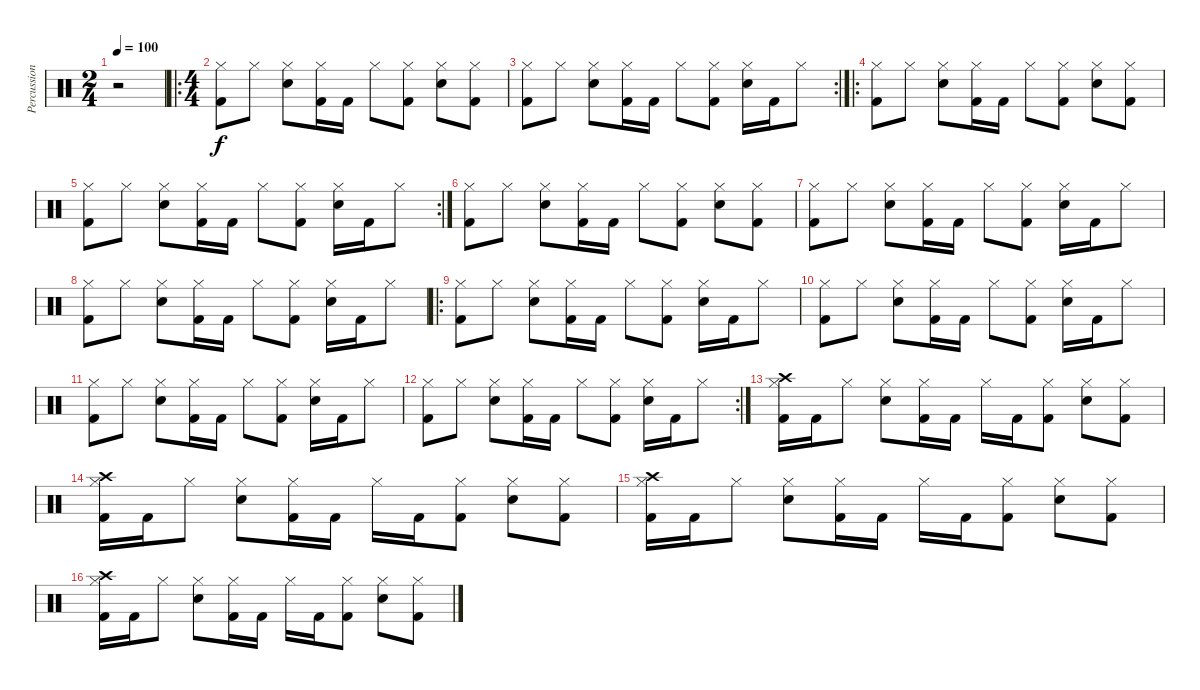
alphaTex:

\track ("Percussion" "Percussion") {instrument percussion}
\staff {score}
\articulation defaults
\ts (2 4)
\tempo 100
\clef neutral
\ks c
r.2{dy f} |
\ro
\ts (4 4)
("Hi-Hat (closed)" "Kick (hit) 2").8 "Hi-Hat (closed)".8 ("Hi-Hat (closed)" "Electric Snare (hit)").8 ("Hi-Hat (closed)" "Kick (hit) 2").16 "Kick (hit) 2".16 "Hi-Hat (closed)".8 ("Hi-Hat (closed)" "Kick (hit) 2").8 ("Hi-Hat (closed)" "Electric Snare (hit)").8 ("Hi-Hat (closed)" "Kick (hit) 2").8 |
\rc 2
("Hi-Hat (closed)" "Kick (hit) 2").8 "Hi-Hat (closed)".8 ("Hi-Hat (closed)" "Electric Snare (hit)").8 ("Hi-Hat (closed)" "Kick (hit) 2").16 "Kick (hit) 2".16 "Hi-Hat (closed)".8 ("Hi-Hat (closed)" "Kick (hit) 2").8 ("Hi-Hat (closed)" "Electric Snare (hit)").16 "Kick (hit) 2".16 "Hi-Hat (closed)".8 |
\ro
("Hi-Hat (closed)" "Kick (hit) 2").8 "Hi-Hat (closed)".8 ("Hi-Hat (closed)" "Electric Snare (hit)").8 ("Hi-Hat (closed)" "Kick (hit) 2").16 "Kick (hit) 2".16 "Hi-Hat (closed)".8 ("Hi-Hat (closed)" "Kick (hit) 2").8 ("Hi-Hat (closed)" "Electric Snare (hit)").8 ("Hi-Hat (closed)" "Kick (hit) 2").8 |
\rc 2
("Hi-Hat (closed)" "Kick (hit) 2").8 "Hi-Hat (closed)".8 ("Hi-Hat (closed)" "Electric Snare (hit)").8 ("Hi-Hat (closed)" "Kick (hit) 2").16 "Kick (hit) 2".16 "Hi-Hat (closed)".8 ("Hi-Hat (closed)" "Kick (hit) 2").8 ("Hi-Hat (closed)" "Electric Snare (hit)").16 "Kick (hit) 2".16 "Hi-Hat (closed)".8 |
("Hi-Hat (closed)" "Kick (hit) 2").8 "Hi-Hat (closed)".8 ("Hi-Hat (closed)" "Electric Snare (hit)").8 ("Hi-Hat (closed)" "Kick (hit) 2").16 "Kick (hit) 2".16 "Hi-Hat (closed)".8 ("Hi-Hat (closed)" "Kick (hit) 2").8 ("Hi-Hat (closed)" "Electric Snare (hit)").8 ("Hi-Hat (closed)" "Kick (hit) 2").8 |
("Hi-Hat (closed)" "Kick (hit) 2").8 "Hi-Hat (closed)".8 ("Hi-Hat (closed)" "Electric Snare (hit)").8 ("Hi-Hat (closed)" "Kick (hit) 2").16 "Kick (hit) 2".16 "Hi-Hat (closed)".8 ("Hi-Hat (closed)" "Kick (hit) 2").8 ("Hi-Hat (closed)" "Electric Snare (hit)").16 "Kick (hit) 2".16 "Hi-Hat (closed)".8 |
("Hi-Hat (closed)" "Kick (hit) 2").8 "Hi-Hat (closed)".8 ("Hi-Hat (closed)" "Electric Snare (hit)").8 ("Hi-Hat (closed)" "Kick (hit) 2").16 "Kick (hit) 2".16 "Hi-Hat (closed)".8 ("Hi-Hat (closed)" "Kick (hit) 2").8 ("Hi-Hat (closed)" "Electric Snare (hit)").16 "Kick (hit) 2".16 "Hi-Hat (closed)".8 |
\ro
("Hi-Hat (closed)" "Kick (hit) 2").8 "Hi-Hat (closed)".8 ("Hi-Hat (closed)" "Electric Snare (hit)").8 ("Hi-Hat (closed)" "Kick (hit) 2").16 "Kick (hit) 2".16 "Hi-Hat (closed)".8 ("Hi-Hat (closed)" "Kick (hit) 2").8 ("Hi-Hat (closed)" "Electric Snare (hit)").16 "Kick (hit) 2".16 "Hi-Hat (closed)".8 |
("Hi-Hat (closed)" "Kick (hit) 2").8 "Hi-Hat (closed)".8 ("Hi-Hat (closed)" "Electric Snare (hit)").8 ("Hi-Hat (closed)" "Kick (hit) 2").16 "Kick (hit) 2".16 "Hi-Hat (closed)".8 ("Hi-Hat (closed)" "Kick (hit) 2").8 ("Hi-Hat (closed)" "Electric Snare (hit)").16 "Kick (hit) 2".16 "Hi-Hat (closed)".8 |
("Hi-Hat (closed)" "Kick (hit) 2").8 "Hi-Hat (closed)".8 ("Hi-Hat (closed)" "Electric Snare (hit)").8 ("Hi-Hat (closed)" "Kick (hit) 2").16 "Kick (hit) 2".16 "Hi-Hat (closed)".8 ("Hi-Hat (closed)" "Kick (hit) 2").8 ("Hi-Hat (closed)" "Electric Snare (hit)").16 "Kick (hit) 2".16 "Hi-Hat (closed)".8 |
\rc 2
("Hi-Hat (closed)" "Kick (hit) 2").8 "Hi-Hat (closed)".8 ("Hi-Hat (closed)" "Electric Snare (hit)").8 ("Hi-Hat (closed)" "Kick (hit) 2").16 "Kick (hit) 2".16 "Hi-Hat (closed)".8 ("Hi-Hat (closed)" "Kick (hit) 2").8 ("Hi-Hat (closed)" "Electric Snare (hit)").16 "Kick (hit) 2".16 "Hi-Hat (closed)".8 |
("Crash high (hit)" "Hi-Hat (closed)" "Kick (hit) 2").16 "Kick (hit) 2".16 "Hi-Hat (closed)".8 ("Hi-Hat (closed)" "Snare (hit) 2").8 ("Hi-Hat (closed)" "Kick (hit) 2").16 "Kick (hit) 2".16 "Hi-Hat (closed)".16 "Kick (hit) 2".16 ("Hi-Hat (closed)" "Kick (hit) 2").8 ("Hi-Hat (closed)" "Snare (hit) 2").8 ("Hi-Hat (closed)" "Kick (hit) 2").8 |
("Crash high (hit)" "Hi-Hat (closed)" "Kick (hit) 2").16 "Kick (hit) 2".16 "Hi-Hat (closed)".8 ("Hi-Hat (closed)" "Snare (hit) 2").8 ("Hi-Hat (closed)" "Kick (hit) 2").16 "Kick (hit) 2".16 "Hi-Hat (closed)".16 "Kick (hit) 2".16 ("Hi-Hat (closed)" "Kick (hit) 2").8 ("Hi-Hat (closed)" "Snare (hit) 2").8 ("Hi-Hat (closed)" "Kick (hit) 2").8 |
("Crash high (hit)" "Hi-Hat (closed)" "Kick (hit) 2").16 "Kick (hit) 2".16 "Hi-Hat (closed)".8 ("Hi-Hat (closed)" "Snare (hit) 2").8 ("Hi-Hat (closed)" "Kick (hit) 2").16 "Kick (hit) 2".16 "Hi-Hat (closed)".16 "Kick (hit) 2".16 ("Hi-Hat (closed)" "Kick (hit) 2").8 ("Hi-Hat (closed)" "Snare (hit) 2").8 ("Hi-Hat (closed)" "Kick (hit) 2").8 |
("Crash high (hit)" "Hi-Hat (closed)" "Kick (hit) 2").16 "Kick (hit) 2".16 "Hi-Hat (closed)".8 ("Hi-Hat (closed)" "Snare (hit) 2").8 ("Hi-Hat (closed)" "Kick (hit) 2").16 "Kick (hit) 2".16 "Hi-Hat (closed)".16 "Kick (hit) 2".16 ("Hi-Hat (closed)" "Kick (hit) 2").8 ("Hi-Hat (closed)" "Snare (hit) 2").8 ("Hi-Hat (closed)" "Kick (hit) 2").8
